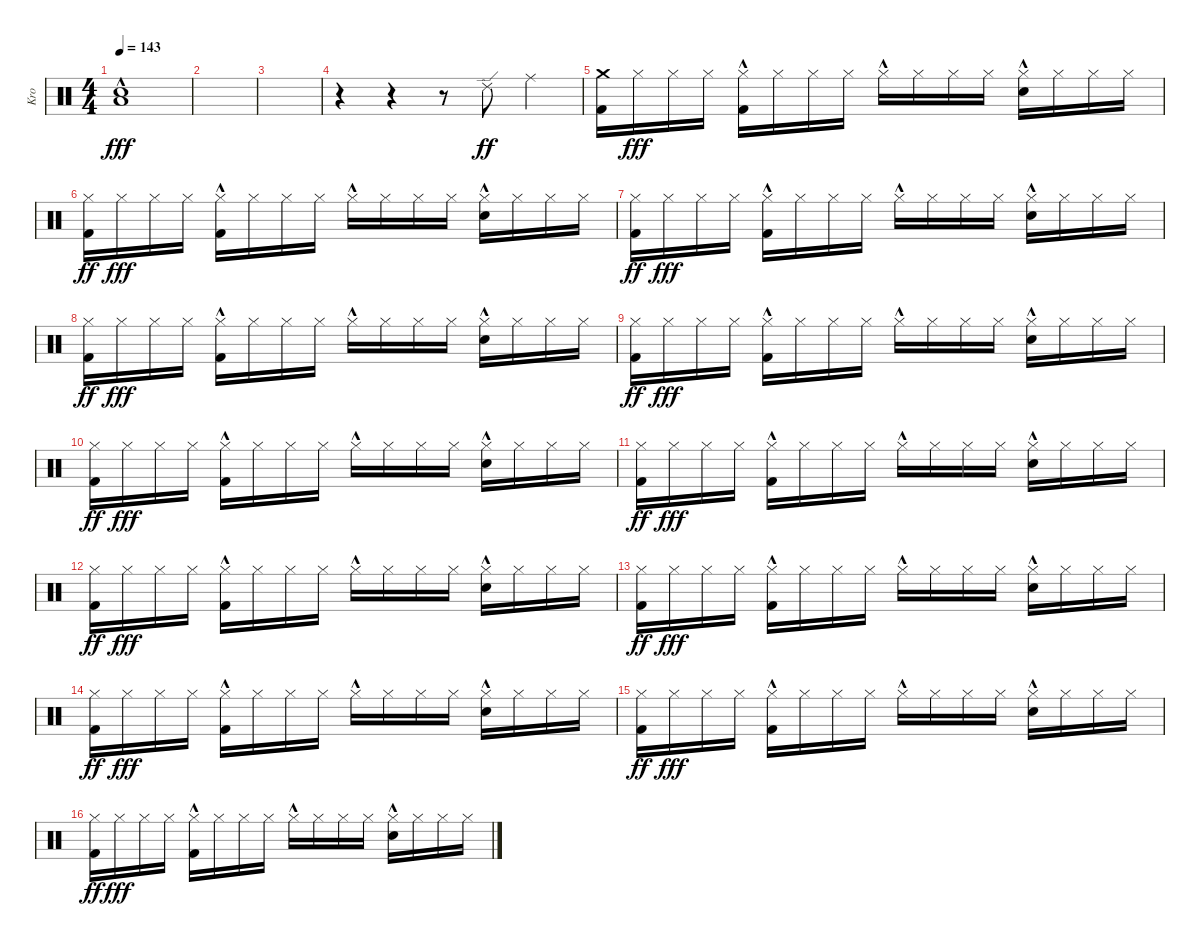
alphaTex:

\track ("Kro" "Kro") {instrument percussion}
\staff {score}
\articulation defaults
\ts (4 4)
\tempo 143
\clef neutral
\ks c
("Low Tom (hit)"{hac} "Electric Snare (hit)"{hac}).1{dy fff} |
|
|
r.4 r.4 r.8 "Ride (edge) 2".8{dy ff} "Ride (middle)".4 |
("Crash medium (hit)" "Kick (hit) 2").16 "Hi-Hat (closed)".16{dy fff} "Hi-Hat (closed)".16 "Hi-Hat (closed)".16 ("Hi-Hat (closed)"{hac} "Kick (hit) 2").16 "Hi-Hat (closed)".16 "Hi-Hat (closed)".16 "Hi-Hat (closed)".16 "Hi-Hat (closed)"{hac}.16 "Hi-Hat (closed)".16 "Hi-Hat (closed)".16 "Hi-Hat (closed)".16 ("Hi-Hat (closed)"{hac} "Electric Snare (hit)").16 "Hi-Hat (closed)".16 "Hi-Hat (closed)".16 "Hi-Hat (closed)".16 |
("Hi-Hat (closed)" "Kick (hit) 2").16{dy ff} "Hi-Hat (closed)".16{dy fff} "Hi-Hat (closed)".16 "Hi-Hat (closed)".16 ("Hi-Hat (closed)"{hac} "Kick (hit) 2").16 "Hi-Hat (closed)".16 "Hi-Hat (closed)".16 "Hi-Hat (closed)".16 "Hi-Hat (closed)"{hac}.16 "Hi-Hat (closed)".16 "Hi-Hat (closed)".16 "Hi-Hat (closed)".16 ("Hi-Hat (closed)"{hac} "Electric Snare (hit)").16 "Hi-Hat (closed)".16 "Hi-Hat (closed)".16 "Hi-Hat (closed)".16 |
("Hi-Hat (closed)" "Kick (hit) 2").16{dy ff} "Hi-Hat (closed)".16{dy fff} "Hi-Hat (closed)".16 "Hi-Hat (closed)".16 ("Hi-Hat (closed)"{hac} "Kick (hit) 2").16 "Hi-Hat (closed)".16 "Hi-Hat (closed)".16 "Hi-Hat (closed)".16 "Hi-Hat (closed)"{hac}.16 "Hi-Hat (closed)".16 "Hi-Hat (closed)".16 "Hi-Hat (closed)".16 ("Hi-Hat (closed)"{hac} "Electric Snare (hit)").16 "Hi-Hat (closed)".16 "Hi-Hat (closed)".16 "Hi-Hat (closed)".16 |
("Hi-Hat (closed)" "Kick (hit) 2").16{dy ff} "Hi-Hat (closed)".16{dy fff} "Hi-Hat (closed)".16 "Hi-Hat (closed)".16 ("Hi-Hat (closed)"{hac} "Kick (hit) 2").16 "Hi-Hat (closed)".16 "Hi-Hat (closed)".16 "Hi-Hat (closed)".16 "Hi-Hat (closed)"{hac}.16 "Hi-Hat (closed)".16 "Hi-Hat (closed)".16 "Hi-Hat (closed)".16 ("Hi-Hat (closed)"{hac} "Electric Snare (hit)").16 "Hi-Hat (closed)".16 "Hi-Hat (closed)".16 "Hi-Hat (closed)".16 |
("Hi-Hat (closed)" "Kick (hit) 2").16{dy ff} "Hi-Hat (closed)".16{dy fff} "Hi-Hat (closed)".16 "Hi-Hat (closed)".16 ("Hi-Hat (closed)"{hac} "Kick (hit) 2").16 "Hi-Hat (closed)".16 "Hi-Hat (closed)".16 "Hi-Hat (closed)".16 "Hi-Hat (closed)"{hac}.16 "Hi-Hat (closed)".16 "Hi-Hat (closed)".16 "Hi-Hat (closed)".16 ("Hi-Hat (closed)"{hac} "Electric Snare (hit)").16 "Hi-Hat (closed)".16 "Hi-Hat (closed)".16 "Hi-Hat (closed)".16 |
("Hi-Hat (closed)" "Kick (hit) 2").16{dy ff} "Hi-Hat (closed)".16{dy fff} "Hi-Hat (closed)".16 "Hi-Hat (closed)".16 ("Hi-Hat (closed)"{hac} "Kick (hit) 2").16 "Hi-Hat (closed)".16 "Hi-Hat (closed)".16 "Hi-Hat (closed)".16 "Hi-Hat (closed)"{hac}.16 "Hi-Hat (closed)".16 "Hi-Hat (closed)".16 "Hi-Hat (closed)".16 ("Hi-Hat (closed)"{hac} "Electric Snare (hit)").16 "Hi-Hat (closed)".16 "Hi-Hat (closed)".16 "Hi-Hat (closed)".16 |
("Hi-Hat (closed)" "Kick (hit) 2").16{dy ff} "Hi-Hat (closed)".16{dy fff} "Hi-Hat (closed)".16 "Hi-Hat (closed)".16 ("Hi-Hat (closed)"{hac} "Kick (hit) 2").16 "Hi-Hat (closed)".16 "Hi-Hat (closed)".16 "Hi-Hat (closed)".16 "Hi-Hat (closed)"{hac}.16 "Hi-Hat (closed)".16 "Hi-Hat (closed)".16 "Hi-Hat (closed)".16 ("Hi-Hat (closed)"{hac} "Electric Snare (hit)").16 "Hi-Hat (closed)".16 "Hi-Hat (closed)".16 "Hi-Hat (closed)".16 |
("Hi-Hat (closed)" "Kick (hit) 2").16{dy ff} "Hi-Hat (closed)".16{dy fff} "Hi-Hat (closed)".16 "Hi-Hat (closed)".16 ("Hi-Hat (closed)"{hac} "Kick (hit) 2").16 "Hi-Hat (closed)".16 "Hi-Hat (closed)".16 "Hi-Hat (closed)".16 "Hi-Hat (closed)"{hac}.16 "Hi-Hat (closed)".16 "Hi-Hat (closed)".16 "Hi-Hat (closed)".16 ("Hi-Hat (closed)"{hac} "Electric Snare (hit)").16 "Hi-Hat (closed)".16 "Hi-Hat (closed)".16 "Hi-Hat (closed)".16 |
("Hi-Hat (closed)" "Kick (hit) 2").16{dy ff} "Hi-Hat (closed)".16{dy fff} "Hi-Hat (closed)".16 "Hi-Hat (closed)".16 ("Hi-Hat (closed)"{hac} "Kick (hit) 2").16 "Hi-Hat (closed)".16 "Hi-Hat (closed)".16 "Hi-Hat (closed)".16 "Hi-Hat (closed)"{hac}.16 "Hi-Hat (closed)".16 "Hi-Hat (closed)".16 "Hi-Hat (closed)".16 ("Hi-Hat (closed)"{hac} "Electric Snare (hit)").16 "Hi-Hat (closed)".16 "Hi-Hat (closed)".16 "Hi-Hat (closed)".16 |
("Hi-Hat (closed)" "Kick (hit) 2").16{dy ff} "Hi-Hat (closed)".16{dy fff} "Hi-Hat (closed)".16 "Hi-Hat (closed)".16 ("Hi-Hat (closed)"{hac} "Kick (hit) 2").16 "Hi-Hat (closed)".16 "Hi-Hat (closed)".16 "Hi-Hat (closed)".16 "Hi-Hat (closed)"{hac}.16 "Hi-Hat (closed)".16 "Hi-Hat (closed)".16 "Hi-Hat (closed)".16 ("Hi-Hat (closed)"{hac} "Electric Snare (hit)").16 "Hi-Hat (closed)".16 "Hi-Hat (closed)".16 "Hi-Hat (closed)".16 |
("Hi-Hat (closed)" "Kick (hit) 2").16{dy ff} "Hi-Hat (closed)".16{dy fff} "Hi-Hat (closed)".16 "Hi-Hat (closed)".16 ("Hi-Hat (closed)"{hac} "Kick (hit) 2").16 "Hi-Hat (closed)".16 "Hi-Hat (closed)".16 "Hi-Hat (closed)".16 "Hi-Hat (closed)"{hac}.16 "Hi-Hat (closed)".16 "Hi-Hat (closed)".16 "Hi-Hat (closed)".16 ("Hi-Hat (closed)"{hac} "Electric Snare (hit)").16 "Hi-Hat (closed)".16 "Hi-Hat (closed)".16 "Hi-Hat (closed)".16 |
("Hi-Hat (closed)" "Kick (hit) 2").16{dy ff} "Hi-Hat (closed)".16{dy fff} "Hi-Hat (closed)".16 "Hi-Hat (closed)".16 ("Hi-Hat (closed)"{hac} "Kick (hit) 2").16 "Hi-Hat (closed)".16 "Hi-Hat (closed)".16 "Hi-Hat (closed)".16 "Hi-Hat (closed)"{hac}.16 "Hi-Hat (closed)".16 "Hi-Hat (closed)".16 "Hi-Hat (closed)".16 ("Hi-Hat (closed)"{hac} "Electric Snare (hit)").16 "Hi-Hat (closed)".16 "Hi-Hat (closed)".16 "Hi-Hat (closed)".16
